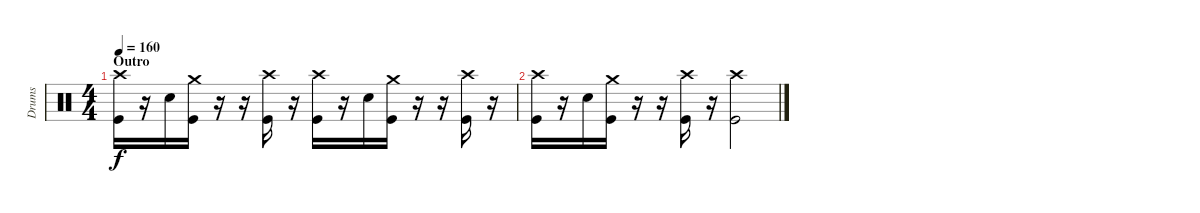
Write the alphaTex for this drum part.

\track ("Drums" "Drums") {instrument percussion}
\staff {score}
\articulation defaults
\ts (4 4)
\section ("" "Outro")
\tempo 160
\clef neutral
\ks c
("Crash high (hit)" "Kick (hit)").16{dy f} r.16 "Electric Snare (hit)".16 ("Crash medium (hit)" "Kick (hit)").16 r.16 r.16 ("Crash high (hit)" "Kick (hit)").16 r.16 ("Crash high (hit)" "Kick (hit)").16 r.16 "Electric Snare (hit)".16 ("Crash medium (hit)" "Kick (hit)").16 r.16 r.16 ("Crash high (hit)" "Kick (hit)").16 r.16 |
("Crash high (hit)" "Kick (hit)").16 r.16 "Electric Snare (hit)".16 ("Crash medium (hit)" "Kick (hit)").16 r.16 r.16 ("Crash high (hit)" "Kick (hit)").16 r.16 ("Crash high (hit)" "Kick (hit)").2
